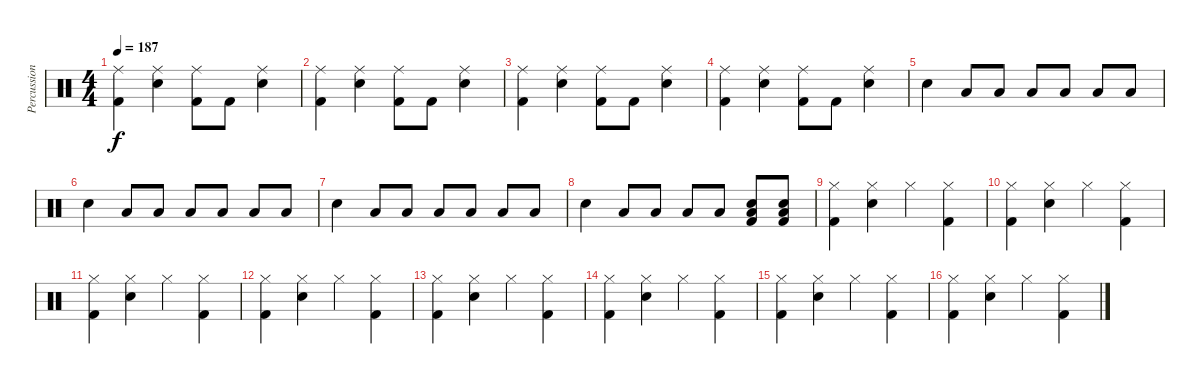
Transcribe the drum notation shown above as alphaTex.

\track ("Percussion" "Percussion") {instrument percussion}
\staff {score}
\articulation defaults
\ts (4 4)
\tempo 187
\clef neutral
\ks c
("Kick (hit) 2" "Ride (middle)").4{dy f} ("Snare (hit) 2" "Ride (middle)").4 ("Kick (hit) 2" "Ride (middle)").8 "Kick (hit) 2".8 ("Snare (hit) 2" "Ride (middle)").4 |
("Kick (hit) 2" "Ride (middle)").4 ("Snare (hit) 2" "Ride (middle)").4 ("Kick (hit) 2" "Ride (middle)").8 "Kick (hit) 2".8 ("Snare (hit) 2" "Ride (middle)").4 |
("Kick (hit) 2" "Ride (middle)").4 ("Snare (hit) 2" "Ride (middle)").4 ("Kick (hit) 2" "Ride (middle)").8 "Kick (hit) 2".8 ("Snare (hit) 2" "Ride (middle)").4 |
("Kick (hit) 2" "Ride (middle)").4 ("Snare (hit) 2" "Ride (middle)").4 ("Kick (hit) 2" "Ride (middle)").8 "Kick (hit) 2".8 ("Snare (hit) 2" "Ride (middle)").4 |
"Snare (hit) 2".4 "Low Tom (hit)".8 "Low Tom (hit)".8 "Low Tom (hit)".8 "Low Floor Tom (hit)".8 "Low Floor Tom (hit)".8 "Low Floor Tom (hit)".8 |
"Snare (hit) 2".4 "Low Tom (hit)".8 "Low Tom (hit)".8 "Low Tom (hit)".8 "Low Floor Tom (hit)".8 "Low Floor Tom (hit)".8 "Low Floor Tom (hit)".8 |
"Snare (hit) 2".4 "Low Tom (hit)".8 "Low Tom (hit)".8 "Low Tom (hit)".8 "Low Floor Tom (hit)".8 "Low Floor Tom (hit)".8 "Low Floor Tom (hit)".8 |
"Snare (hit) 2".4 "Low Tom (hit)".8 "Low Tom (hit)".8 "Low Tom (hit)".8 "Low Floor Tom (hit)".8 ("Snare (hit) 2" "Kick (hit) 2" "Low Floor Tom (hit)").8 ("Kick (hit) 2" "Snare (hit) 2" "Low Floor Tom (hit)").8 |
("Kick (hit) 2" "Hi-Hat (closed)").4 ("Snare (hit) 2" "Hi-Hat (closed)").4 "Hi-Hat (closed)".4 ("Kick (hit) 2" "Hi-Hat (closed)").4 |
("Kick (hit) 2" "Hi-Hat (closed)").4 ("Snare (hit) 2" "Hi-Hat (closed)").4 "Hi-Hat (closed)".4 ("Kick (hit) 2" "Hi-Hat (closed)").4 |
("Kick (hit) 2" "Hi-Hat (closed)").4 ("Snare (hit) 2" "Hi-Hat (closed)").4 "Hi-Hat (closed)".4 ("Kick (hit) 2" "Hi-Hat (closed)").4 |
("Kick (hit) 2" "Hi-Hat (closed)").4 ("Snare (hit) 2" "Hi-Hat (closed)").4 "Hi-Hat (closed)".4 ("Kick (hit) 2" "Hi-Hat (closed)").4 |
("Kick (hit) 2" "Hi-Hat (closed)").4 ("Snare (hit) 2" "Hi-Hat (closed)").4 "Hi-Hat (closed)".4 ("Kick (hit) 2" "Hi-Hat (closed)").4 |
("Kick (hit) 2" "Hi-Hat (closed)").4 ("Snare (hit) 2" "Hi-Hat (closed)").4 "Hi-Hat (closed)".4 ("Kick (hit) 2" "Hi-Hat (closed)").4 |
("Kick (hit) 2" "Hi-Hat (closed)").4 ("Snare (hit) 2" "Hi-Hat (closed)").4 "Hi-Hat (closed)".4 ("Kick (hit) 2" "Hi-Hat (closed)").4 |
("Kick (hit) 2" "Hi-Hat (closed)").4 ("Snare (hit) 2" "Hi-Hat (closed)").4 "Hi-Hat (closed)".4 ("Kick (hit) 2" "Hi-Hat (closed)").4
